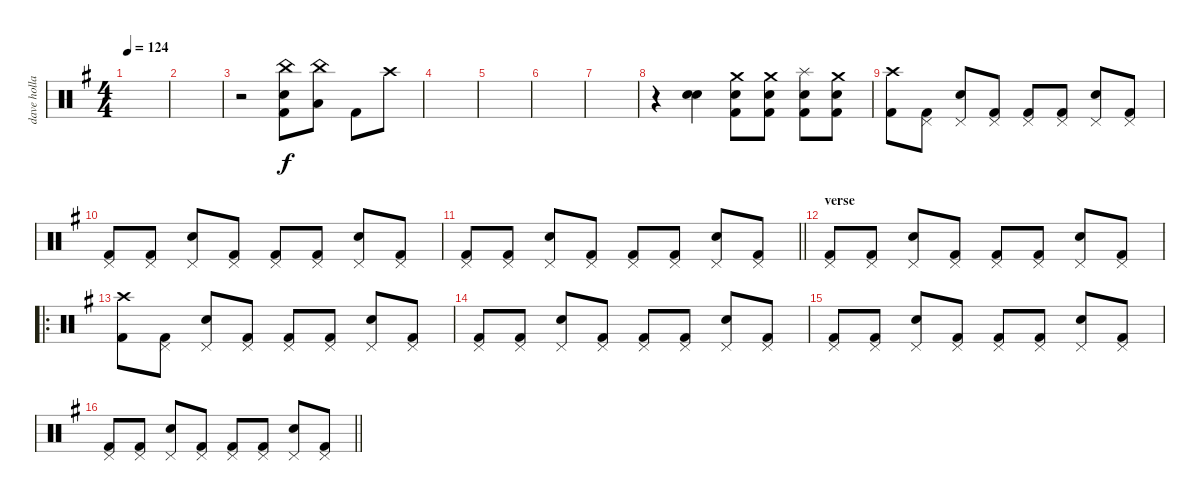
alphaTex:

\track ("dave holland" "dave holla") {instrument percussion}
\staff {score}
\articulation defaults
\ts (4 4)
\tempo 124
\clef neutral
\ks g
|
|
r.2 ("China (hit)" "Electric Snare (hit)" "Kick (hit) 2").8 ("China (hit)" "Low Tom (hit)").8 "Kick (hit) 2".8 "Crash high (hit)".8 |
|
|
|
|
r.4 ("Snare (hit) 2" "Electric Snare (hit)").4 ("Crash medium (hit)" "Electric Snare (hit)" "Kick (hit) 2").8 ("Crash medium (hit)" "Electric Snare (hit)" "Kick (hit) 2").8 ("Splash (hit)" "Snare (hit) 2" "Kick (hit) 2").8 ("Crash medium (hit)" "Electric Snare (hit)" "Kick (hit) 2").8 |
("Crash high (hit)" "Kick (hit) 2").8 ("Pedal Hi-Hat (hit)" "Kick (hit) 2").8 ("Pedal Hi-Hat (hit)" "Snare (hit) 2").8 ("Pedal Hi-Hat (hit)" "Kick (hit) 2").8 ("Pedal Hi-Hat (hit)" "Kick (hit) 2").8 ("Pedal Hi-Hat (hit)" "Kick (hit) 2").8 ("Pedal Hi-Hat (hit)" "Snare (hit) 2").8 ("Pedal Hi-Hat (hit)" "Kick (hit) 2").8 |
("Pedal Hi-Hat (hit)" "Kick (hit) 2").8 ("Pedal Hi-Hat (hit)" "Kick (hit) 2").8 ("Pedal Hi-Hat (hit)" "Snare (hit) 2").8 ("Pedal Hi-Hat (hit)" "Kick (hit) 2").8 ("Pedal Hi-Hat (hit)" "Kick (hit) 2").8 ("Pedal Hi-Hat (hit)" "Kick (hit) 2").8 ("Pedal Hi-Hat (hit)" "Snare (hit) 2").8 ("Pedal Hi-Hat (hit)" "Kick (hit) 2").8 |
\barLineRight lightlight
("Pedal Hi-Hat (hit)" "Kick (hit) 2").8 ("Pedal Hi-Hat (hit)" "Kick (hit) 2").8 ("Pedal Hi-Hat (hit)" "Snare (hit) 2").8 ("Pedal Hi-Hat (hit)" "Kick (hit) 2").8 ("Pedal Hi-Hat (hit)" "Kick (hit) 2").8 ("Pedal Hi-Hat (hit)" "Kick (hit) 2").8 ("Pedal Hi-Hat (hit)" "Snare (hit) 2").8 ("Pedal Hi-Hat (hit)" "Kick (hit) 2").8 |
\section ("" "verse ")
("Pedal Hi-Hat (hit)" "Kick (hit) 2").8 ("Pedal Hi-Hat (hit)" "Kick (hit) 2").8 ("Pedal Hi-Hat (hit)" "Snare (hit) 2").8 ("Pedal Hi-Hat (hit)" "Kick (hit) 2").8 ("Pedal Hi-Hat (hit)" "Kick (hit) 2").8 ("Pedal Hi-Hat (hit)" "Kick (hit) 2").8 ("Pedal Hi-Hat (hit)" "Snare (hit) 2").8 ("Pedal Hi-Hat (hit)" "Kick (hit) 2").8 |
\ro
("Crash high (hit)" "Kick (hit) 2").8 ("Pedal Hi-Hat (hit)" "Kick (hit) 2").8 ("Pedal Hi-Hat (hit)" "Snare (hit) 2").8 ("Pedal Hi-Hat (hit)" "Kick (hit) 2").8 ("Pedal Hi-Hat (hit)" "Kick (hit) 2").8 ("Pedal Hi-Hat (hit)" "Kick (hit) 2").8 ("Pedal Hi-Hat (hit)" "Snare (hit) 2").8 ("Pedal Hi-Hat (hit)" "Kick (hit) 2").8 |
("Pedal Hi-Hat (hit)" "Kick (hit) 2").8 ("Pedal Hi-Hat (hit)" "Kick (hit) 2").8 ("Pedal Hi-Hat (hit)" "Snare (hit) 2").8 ("Pedal Hi-Hat (hit)" "Kick (hit) 2").8 ("Pedal Hi-Hat (hit)" "Kick (hit) 2").8 ("Pedal Hi-Hat (hit)" "Kick (hit) 2").8 ("Pedal Hi-Hat (hit)" "Snare (hit) 2").8 ("Pedal Hi-Hat (hit)" "Kick (hit) 2").8 |
("Pedal Hi-Hat (hit)" "Kick (hit) 2").8 ("Pedal Hi-Hat (hit)" "Kick (hit) 2").8 ("Pedal Hi-Hat (hit)" "Snare (hit) 2").8 ("Pedal Hi-Hat (hit)" "Kick (hit) 2").8 ("Pedal Hi-Hat (hit)" "Kick (hit) 2").8 ("Pedal Hi-Hat (hit)" "Kick (hit) 2").8 ("Pedal Hi-Hat (hit)" "Snare (hit) 2").8 ("Pedal Hi-Hat (hit)" "Kick (hit) 2").8 |
\barLineRight lightlight
("Pedal Hi-Hat (hit)" "Kick (hit) 2").8 ("Pedal Hi-Hat (hit)" "Kick (hit) 2").8 ("Pedal Hi-Hat (hit)" "Snare (hit) 2").8 ("Pedal Hi-Hat (hit)" "Kick (hit) 2").8 ("Pedal Hi-Hat (hit)" "Kick (hit) 2").8 ("Pedal Hi-Hat (hit)" "Kick (hit) 2").8 ("Pedal Hi-Hat (hit)" "Snare (hit) 2").8 ("Pedal Hi-Hat (hit)" "Kick (hit) 2").8
